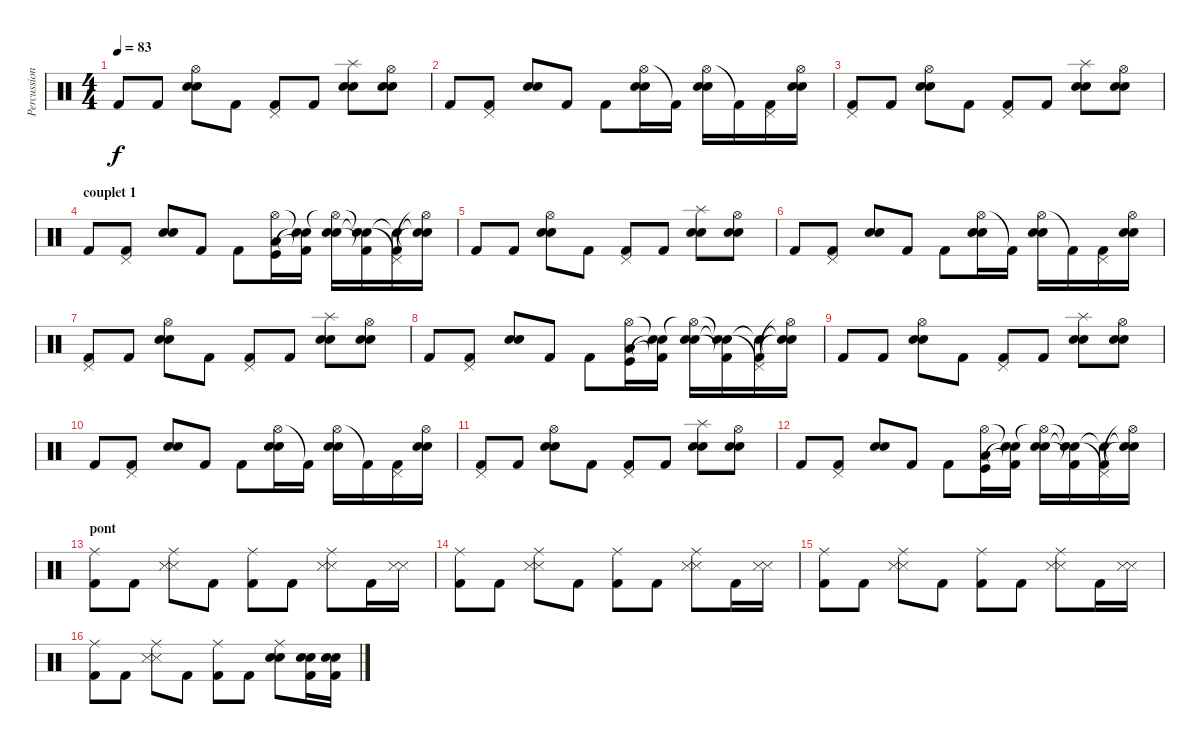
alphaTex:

\track ("Percussions" "Percussion") {instrument percussion}
\staff {score}
\articulation defaults
\ts (4 4)
\tempo 83
\clef neutral
\ks c "Kick (hit) 2".8{dy f} "Kick (hit) 2".8
("Hi-Hat (open)" "Electric Snare (hit)" "Snare (hit) 2").8 "Kick (hit) 2".8 ("Pedal Hi-Hat (hit)" "Kick (hit) 2").8 "Kick (hit) 2".8 ("Splash (hit)" "Electric Snare (hit)" "Snare (hit) 2").8 ("Hi-Hat (open)" "Electric Snare (hit)" "Snare (hit) 2").8 |
"Kick (hit) 2".8 ("Pedal Hi-Hat (hit)" "Kick (hit) 2").8 ("Electric Snare (hit)" "Snare (hit) 2").8 "Kick (hit) 2".8 "Kick (hit) 2".8 ("Hi-Hat (open)" "Electric Snare (hit)" "Snare (hit) 2").16 "Kick (hit) 2"{t}.16 ("Hi-Hat (open)" "Electric Snare (hit)" "Snare (hit) 2").16 "Kick (hit) 2"{t}.16 ("Pedal Hi-Hat (hit)" "Kick (hit) 2").16 ("Hi-Hat (open)" "Electric Snare (hit)" "Snare (hit) 2").16 |
("Pedal Hi-Hat (hit)" "Kick (hit) 2").8 "Kick (hit) 2".8 ("Hi-Hat (open)" "Electric Snare (hit)" "Snare (hit) 2").8 "Kick (hit) 2".8 ("Pedal Hi-Hat (hit)" "Kick (hit) 2").8 "Kick (hit) 2".8 ("Splash (hit)" "Electric Snare (hit)" "Snare (hit) 2").8 ("Hi-Hat (open)" "Electric Snare (hit)" "Snare (hit) 2").8 |
\section ("" "couplet 1")
"Kick (hit) 2".8 ("Pedal Hi-Hat (hit)" "Kick (hit) 2").8 ("Electric Snare (hit)" "Snare (hit) 2").8 "Kick (hit) 2".8 "Kick (hit) 2".8 ("Hi-Hat (open)" "Low Floor Tom (hit)" "Kick (hit)").16 ("Snare (hit)"{t} "Kick (hit) 2"{t} "Snare (hit)"{t}).16 ("Hi-Hat (open)"{t} "Electric Snare (hit)" "Snare (hit) 2").16 ("Snare (hit)"{t} "Kick (hit) 2"{t} "Snare (hit)"{t}).16 ("Pedal Hi-Hat (hit)"{t} "Kick (hit) 2" "Snare (hit)"{t}).16 ("Hi-Hat (open)"{t} "Electric Snare (hit)"{t} "Snare (hit) 2"{t}).16 |
"Kick (hit) 2".8 "Kick (hit) 2".8 ("Hi-Hat (open)" "Electric Snare (hit)" "Snare (hit) 2").8 "Kick (hit) 2".8 ("Pedal Hi-Hat (hit)" "Kick (hit) 2").8 "Kick (hit) 2".8 ("Splash (hit)" "Electric Snare (hit)" "Snare (hit) 2").8 ("Hi-Hat (open)" "Electric Snare (hit)" "Snare (hit) 2").8 |
"Kick (hit) 2".8 ("Pedal Hi-Hat (hit)" "Kick (hit) 2").8 ("Electric Snare (hit)" "Snare (hit) 2").8 "Kick (hit) 2".8 "Kick (hit) 2".8 ("Hi-Hat (open)" "Electric Snare (hit)" "Snare (hit) 2").16 "Kick (hit) 2"{t}.16 ("Hi-Hat (open)" "Electric Snare (hit)" "Snare (hit) 2").16 "Kick (hit) 2"{t}.16 ("Pedal Hi-Hat (hit)" "Kick (hit) 2").16 ("Hi-Hat (open)" "Electric Snare (hit)" "Snare (hit) 2").16 |
("Pedal Hi-Hat (hit)" "Kick (hit) 2").8 "Kick (hit) 2".8 ("Hi-Hat (open)" "Electric Snare (hit)" "Snare (hit) 2").8 "Kick (hit) 2".8 ("Pedal Hi-Hat (hit)" "Kick (hit) 2").8 "Kick (hit) 2".8 ("Splash (hit)" "Electric Snare (hit)" "Snare (hit) 2").8 ("Hi-Hat (open)" "Electric Snare (hit)" "Snare (hit) 2").8 |
"Kick (hit) 2".8 ("Pedal Hi-Hat (hit)" "Kick (hit) 2").8 ("Electric Snare (hit)" "Snare (hit) 2").8 "Kick (hit) 2".8 "Kick (hit) 2".8 ("Hi-Hat (open)" "Low Floor Tom (hit)" "Kick (hit)").16 ("Snare (hit)"{t} "Kick (hit) 2"{t} "Snare (hit)"{t}).16 ("Hi-Hat (open)"{t} "Electric Snare (hit)" "Snare (hit) 2").16 ("Snare (hit)"{t} "Kick (hit) 2"{t} "Snare (hit)"{t}).16 ("Pedal Hi-Hat (hit)"{t} "Kick (hit) 2" "Snare (hit)"{t}).16 ("Hi-Hat (open)"{t} "Electric Snare (hit)"{t} "Snare (hit) 2"{t}).16 |
"Kick (hit) 2".8 "Kick (hit) 2".8 ("Hi-Hat (open)" "Electric Snare (hit)" "Snare (hit) 2").8 "Kick (hit) 2".8 ("Pedal Hi-Hat (hit)" "Kick (hit) 2").8 "Kick (hit) 2".8 ("Splash (hit)" "Electric Snare (hit)" "Snare (hit) 2").8 ("Hi-Hat (open)" "Electric Snare (hit)" "Snare (hit) 2").8 |
"Kick (hit) 2".8 ("Pedal Hi-Hat (hit)" "Kick (hit) 2").8 ("Electric Snare (hit)" "Snare (hit) 2").8 "Kick (hit) 2".8 "Kick (hit) 2".8 ("Hi-Hat (open)" "Electric Snare (hit)" "Snare (hit) 2").16 "Kick (hit) 2"{t}.16 ("Hi-Hat (open)" "Electric Snare (hit)" "Snare (hit) 2").16 "Kick (hit) 2"{t}.16 ("Pedal Hi-Hat (hit)" "Kick (hit) 2").16 ("Hi-Hat (open)" "Electric Snare (hit)" "Snare (hit) 2").16 |
("Pedal Hi-Hat (hit)" "Kick (hit) 2").8 "Kick (hit) 2".8 ("Hi-Hat (open)" "Electric Snare (hit)" "Snare (hit) 2").8 "Kick (hit) 2".8 ("Pedal Hi-Hat (hit)" "Kick (hit) 2").8 "Kick (hit) 2".8 ("Splash (hit)" "Electric Snare (hit)" "Snare (hit) 2").8 ("Hi-Hat (open)" "Electric Snare (hit)" "Snare (hit) 2").8 |
"Kick (hit) 2".8 ("Pedal Hi-Hat (hit)" "Kick (hit) 2").8 ("Electric Snare (hit)" "Snare (hit) 2").8 "Kick (hit) 2".8 "Kick (hit) 2".8 ("Hi-Hat (open)" "Low Floor Tom (hit)" "Kick (hit)").16 ("Snare (hit)"{t} "Kick (hit) 2"{t} "Snare (hit)"{t}).16 ("Hi-Hat (open)"{t} "Electric Snare (hit)" "Snare (hit) 2").16 ("Snare (hit)"{t} "Kick (hit) 2"{t} "Snare (hit)"{t}).16 ("Pedal Hi-Hat (hit)"{t} "Kick (hit) 2" "Snare (hit)"{t}).16 ("Hi-Hat (open)"{t} "Electric Snare (hit)"{t} "Snare (hit) 2"{t}).16 |
\section ("" "pont")
("Ride (middle)" "Kick (hit) 2").8 "Kick (hit) 2".8 ("Ride (middle)" "Metronome (hit)" "Snare (side stick) 3").8 "Kick (hit) 2".8 ("Ride (middle)" "Kick (hit) 2").8 "Kick (hit) 2".8 ("Ride (middle)" "Metronome (hit)" "Snare (side stick) 3").8 "Kick (hit) 2".16 ("Metronome (hit)" "Snare (side stick) 3").16 |
("Ride (middle)" "Kick (hit) 2").8 "Kick (hit) 2".8 ("Ride (middle)" "Metronome (hit)" "Snare (side stick) 3").8 "Kick (hit) 2".8 ("Ride (middle)" "Kick (hit) 2").8 "Kick (hit) 2".8 ("Ride (middle)" "Metronome (hit)" "Snare (side stick) 3").8 "Kick (hit) 2".16 ("Metronome (hit)" "Snare (side stick) 3").16 |
("Ride (middle)" "Kick (hit) 2").8 "Kick (hit) 2".8 ("Ride (middle)" "Metronome (hit)" "Snare (side stick) 3").8 "Kick (hit) 2".8 ("Ride (middle)" "Kick (hit) 2").8 "Kick (hit) 2".8 ("Ride (middle)" "Metronome (hit)" "Snare (side stick) 3").8 "Kick (hit) 2".16 ("Metronome (hit)" "Snare (side stick) 3").16 |
("Ride (middle)" "Kick (hit) 2").8 "Kick (hit) 2".8 ("Ride (middle)" "Metronome (hit)" "Snare (side stick) 3").8 "Kick (hit) 2".8 ("Ride (middle)" "Kick (hit) 2").8 "Kick (hit) 2".8 ("Ride (middle)" "Electric Snare (hit)" "Snare (hit) 2").8 ("Electric Snare (hit)" "Snare (hit) 2" "Kick (hit) 2").16 ("Electric Snare (hit)" "Snare (hit) 2" "Kick (hit) 2").16
